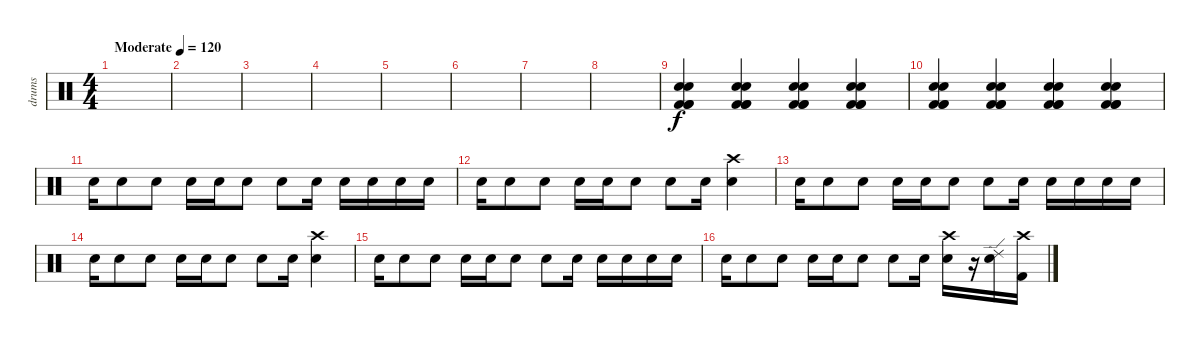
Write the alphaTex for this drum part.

\track ("drums" "drums") {instrument percussion}
\staff {score}
\articulation defaults
\ts (4 4)
\tempo (120 "Moderate")
\clef neutral
\ks c
|
|
|
|
|
|
|
|
("Electric Snare (hit)" "Electric Snare (hit)" "Kick (hit) 2" "Kick (hit) 2" "Kick (hit) 2").4 ("Electric Snare (hit)" "Electric Snare (hit)" "Kick (hit) 2" "Kick (hit) 2" "Kick (hit) 2").4 ("Electric Snare (hit)" "Electric Snare (hit)" "Kick (hit) 2" "Kick (hit) 2" "Kick (hit) 2").4 ("Electric Snare (hit)" "Electric Snare (hit)" "Kick (hit) 2" "Kick (hit) 2" "Kick (hit) 2").4 |
("Electric Snare (hit)" "Electric Snare (hit)" "Kick (hit) 2" "Kick (hit) 2" "Kick (hit) 2").4 ("Electric Snare (hit)" "Electric Snare (hit)" "Kick (hit) 2" "Kick (hit) 2" "Kick (hit) 2").4 ("Electric Snare (hit)" "Electric Snare (hit)" "Kick (hit) 2" "Kick (hit) 2" "Kick (hit) 2").4 ("Electric Snare (hit)" "Electric Snare (hit)" "Kick (hit) 2" "Kick (hit) 2" "Kick (hit) 2").4 |
"Electric Snare (hit)".16 "Electric Snare (hit)".8 "Electric Snare (hit)".8 "Electric Snare (hit)".16 "Electric Snare (hit)".16 "Electric Snare (hit)".8 "Electric Snare (hit)".8 "Electric Snare (hit)".16 "Electric Snare (hit)".16 "Electric Snare (hit)".16 "Electric Snare (hit)".16 "Electric Snare (hit)".16 |
"Electric Snare (hit)".16 "Electric Snare (hit)".8 "Electric Snare (hit)".8 "Electric Snare (hit)".16 "Electric Snare (hit)".16 "Electric Snare (hit)".8 "Electric Snare (hit)".8 "Electric Snare (hit)".16 ("Crash high (hit)" "Electric Snare (hit)").4 |
"Electric Snare (hit)".16 "Electric Snare (hit)".8 "Electric Snare (hit)".8 "Electric Snare (hit)".16 "Electric Snare (hit)".16 "Electric Snare (hit)".8 "Electric Snare (hit)".8 "Electric Snare (hit)".16 "Electric Snare (hit)".16 "Electric Snare (hit)".16 "Electric Snare (hit)".16 "Electric Snare (hit)".16 |
"Electric Snare (hit)".16 "Electric Snare (hit)".8 "Electric Snare (hit)".8 "Electric Snare (hit)".16 "Electric Snare (hit)".16 "Electric Snare (hit)".8 "Electric Snare (hit)".8 "Electric Snare (hit)".16 ("Crash high (hit)" "Electric Snare (hit)").4 |
"Electric Snare (hit)".16 "Electric Snare (hit)".8 "Electric Snare (hit)".8 "Electric Snare (hit)".16 "Electric Snare (hit)".16 "Electric Snare (hit)".8 "Electric Snare (hit)".8 "Electric Snare (hit)".16 "Electric Snare (hit)".16 "Electric Snare (hit)".16 "Electric Snare (hit)".16 "Electric Snare (hit)".16 |
"Electric Snare (hit)".16 "Electric Snare (hit)".8 "Electric Snare (hit)".8 "Electric Snare (hit)".16 "Electric Snare (hit)".16 "Electric Snare (hit)".8 "Electric Snare (hit)".8 "Electric Snare (hit)".16 ("Crash high (hit)" "Electric Snare (hit)").16 r.16 ("Ride (edge) 2" "Electric Snare (hit)").16 ("Crash high (hit)" "Kick (hit) 2").16
